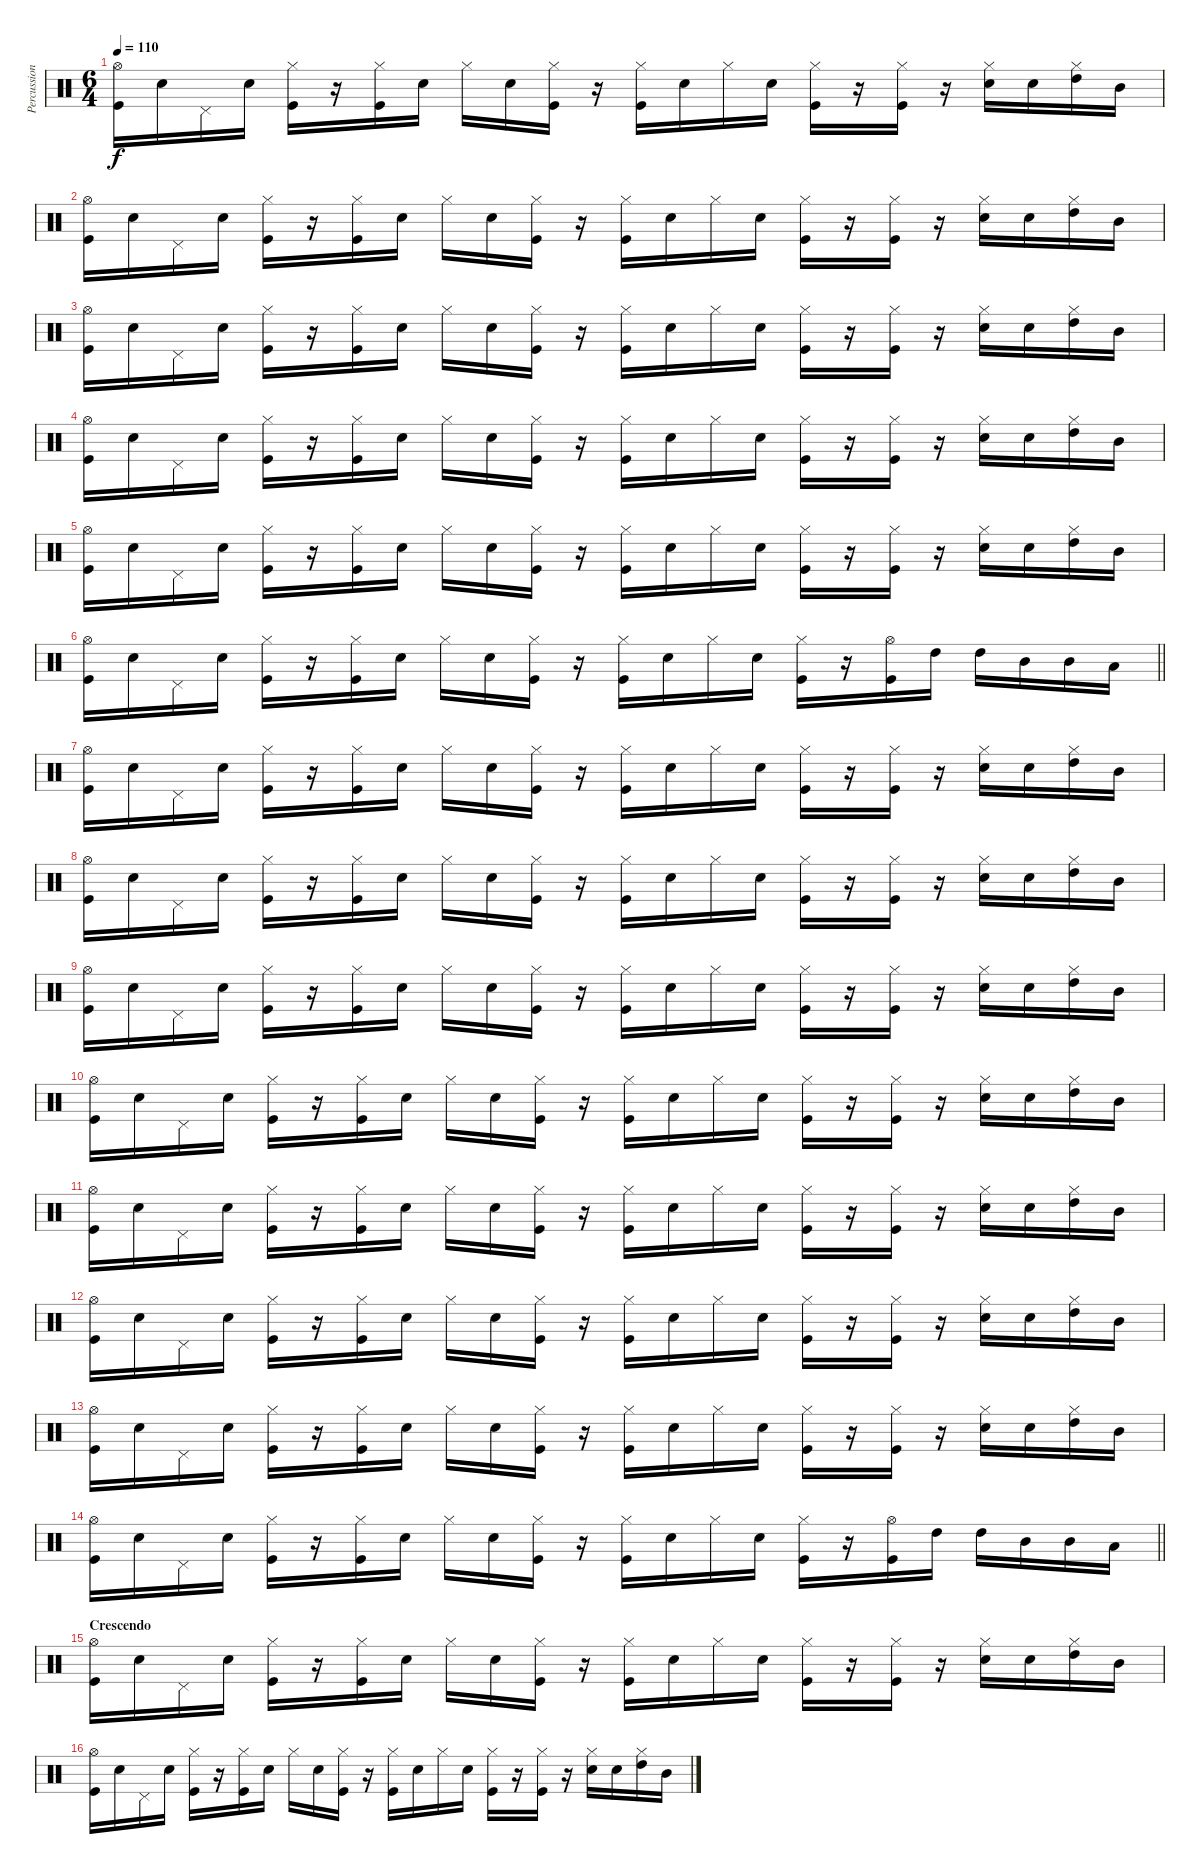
\track ("Percussion 1" "Percussion") {instrument percussion}
\staff {score}
\articulation defaults
\ts (6 4)
\tempo 110
\clef neutral
\ks c
("Hi-Hat (open)" "Kick (hit)").16{dy f} "Snare (hit) 2".16 "Pedal Hi-Hat (hit)".16 "Snare (hit) 2".16 ("Hi-Hat (closed)" "Kick (hit)").16 r.16 ("Hi-Hat (closed)" "Kick (hit)").16 "Snare (hit) 2".16 "Hi-Hat (closed)".16 "Snare (hit) 2".16 ("Hi-Hat (closed)" "Kick (hit)").16 r.16 ("Hi-Hat (closed)" "Kick (hit)").16 "Snare (hit) 2".16 "Hi-Hat (closed)".16 "Snare (hit) 2".16 ("Hi-Hat (closed)" "Kick (hit)").16 r.16 ("Hi-Hat (closed)" "Kick (hit)").16 r.16 ("Hi-Hat (closed)" "Snare (hit) 2").16 "Snare (hit) 2".16 ("Hi-Hat (closed)" "High Tom (hit)").16 "Mid Tom (hit)".16 |
("Hi-Hat (open)" "Kick (hit)").16 "Snare (hit) 2".16 "Pedal Hi-Hat (hit)".16 "Snare (hit) 2".16 ("Hi-Hat (closed)" "Kick (hit)").16 r.16 ("Hi-Hat (closed)" "Kick (hit)").16 "Snare (hit) 2".16 "Hi-Hat (closed)".16 "Snare (hit) 2".16 ("Hi-Hat (closed)" "Kick (hit)").16 r.16 ("Hi-Hat (closed)" "Kick (hit)").16 "Snare (hit) 2".16 "Hi-Hat (closed)".16 "Snare (hit) 2".16 ("Hi-Hat (closed)" "Kick (hit)").16 r.16 ("Hi-Hat (closed)" "Kick (hit)").16 r.16 ("Hi-Hat (closed)" "Snare (hit) 2").16 "Snare (hit) 2".16 ("Hi-Hat (closed)" "High Tom (hit)").16 "Mid Tom (hit)".16 |
("Hi-Hat (open)" "Kick (hit)").16 "Snare (hit) 2".16 "Pedal Hi-Hat (hit)".16 "Snare (hit) 2".16 ("Hi-Hat (closed)" "Kick (hit)").16 r.16 ("Hi-Hat (closed)" "Kick (hit)").16 "Snare (hit) 2".16 "Hi-Hat (closed)".16 "Snare (hit) 2".16 ("Hi-Hat (closed)" "Kick (hit)").16 r.16 ("Hi-Hat (closed)" "Kick (hit)").16 "Snare (hit) 2".16 "Hi-Hat (closed)".16 "Snare (hit) 2".16 ("Hi-Hat (closed)" "Kick (hit)").16 r.16 ("Hi-Hat (closed)" "Kick (hit)").16 r.16 ("Hi-Hat (closed)" "Snare (hit) 2").16 "Snare (hit) 2".16 ("Hi-Hat (closed)" "High Tom (hit)").16 "Mid Tom (hit)".16 |
("Hi-Hat (open)" "Kick (hit)").16 "Snare (hit) 2".16 "Pedal Hi-Hat (hit)".16 "Snare (hit) 2".16 ("Hi-Hat (closed)" "Kick (hit)").16 r.16 ("Hi-Hat (closed)" "Kick (hit)").16 "Snare (hit) 2".16 "Hi-Hat (closed)".16 "Snare (hit) 2".16 ("Hi-Hat (closed)" "Kick (hit)").16 r.16 ("Hi-Hat (closed)" "Kick (hit)").16 "Snare (hit) 2".16 "Hi-Hat (closed)".16 "Snare (hit) 2".16 ("Hi-Hat (closed)" "Kick (hit)").16 r.16 ("Hi-Hat (closed)" "Kick (hit)").16 r.16 ("Hi-Hat (closed)" "Snare (hit) 2").16 "Snare (hit) 2".16 ("Hi-Hat (closed)" "High Tom (hit)").16 "Mid Tom (hit)".16 |
("Hi-Hat (open)" "Kick (hit)").16 "Snare (hit) 2".16 "Pedal Hi-Hat (hit)".16 "Snare (hit) 2".16 ("Hi-Hat (closed)" "Kick (hit)").16 r.16 ("Hi-Hat (closed)" "Kick (hit)").16 "Snare (hit) 2".16 "Hi-Hat (closed)".16 "Snare (hit) 2".16 ("Hi-Hat (closed)" "Kick (hit)").16 r.16 ("Hi-Hat (closed)" "Kick (hit)").16 "Snare (hit) 2".16 "Hi-Hat (closed)".16 "Snare (hit) 2".16 ("Hi-Hat (closed)" "Kick (hit)").16 r.16 ("Hi-Hat (closed)" "Kick (hit)").16 r.16 ("Hi-Hat (closed)" "Snare (hit) 2").16 "Snare (hit) 2".16 ("Hi-Hat (closed)" "High Tom (hit)").16 "Mid Tom (hit)".16 |
\barLineRight lightlight
("Hi-Hat (open)" "Kick (hit)").16 "Snare (hit) 2".16 "Pedal Hi-Hat (hit)".16 "Snare (hit) 2".16 ("Hi-Hat (closed)" "Kick (hit)").16 r.16 ("Hi-Hat (closed)" "Kick (hit)").16 "Snare (hit) 2".16 "Hi-Hat (closed)".16 "Snare (hit) 2".16 ("Hi-Hat (closed)" "Kick (hit)").16 r.16 ("Hi-Hat (closed)" "Kick (hit)").16 "Snare (hit) 2".16 "Hi-Hat (closed)".16 "Snare (hit) 2".16 ("Hi-Hat (closed)" "Kick (hit)").16 r.16 ("Hi-Hat (open)" "Kick (hit)").16 "High Tom (hit)".16 "High Tom (hit)".16 "Mid Tom (hit)".16 "Mid Tom (hit)".16 "Low Tom (hit)".16 |
("Hi-Hat (open)" "Kick (hit)").16 "Snare (hit) 2".16 "Pedal Hi-Hat (hit)".16 "Snare (hit) 2".16 ("Hi-Hat (closed)" "Kick (hit)").16 r.16 ("Hi-Hat (closed)" "Kick (hit)").16 "Snare (hit) 2".16 "Hi-Hat (closed)".16 "Snare (hit) 2".16 ("Hi-Hat (closed)" "Kick (hit)").16 r.16 ("Hi-Hat (closed)" "Kick (hit)").16 "Snare (hit) 2".16 "Hi-Hat (closed)".16 "Snare (hit) 2".16 ("Hi-Hat (closed)" "Kick (hit)").16 r.16 ("Hi-Hat (closed)" "Kick (hit)").16 r.16 ("Hi-Hat (closed)" "Snare (hit) 2").16 "Snare (hit) 2".16 ("Hi-Hat (closed)" "High Tom (hit)").16 "Mid Tom (hit)".16 |
("Hi-Hat (open)" "Kick (hit)").16 "Snare (hit) 2".16 "Pedal Hi-Hat (hit)".16 "Snare (hit) 2".16 ("Hi-Hat (closed)" "Kick (hit)").16 r.16 ("Hi-Hat (closed)" "Kick (hit)").16 "Snare (hit) 2".16 "Hi-Hat (closed)".16 "Snare (hit) 2".16 ("Hi-Hat (closed)" "Kick (hit)").16 r.16 ("Hi-Hat (closed)" "Kick (hit)").16 "Snare (hit) 2".16 "Hi-Hat (closed)".16 "Snare (hit) 2".16 ("Hi-Hat (closed)" "Kick (hit)").16 r.16 ("Hi-Hat (closed)" "Kick (hit)").16 r.16 ("Hi-Hat (closed)" "Snare (hit) 2").16 "Snare (hit) 2".16 ("Hi-Hat (closed)" "High Tom (hit)").16 "Mid Tom (hit)".16 |
("Hi-Hat (open)" "Kick (hit)").16 "Snare (hit) 2".16 "Pedal Hi-Hat (hit)".16 "Snare (hit) 2".16 ("Hi-Hat (closed)" "Kick (hit)").16 r.16 ("Hi-Hat (closed)" "Kick (hit)").16 "Snare (hit) 2".16 "Hi-Hat (closed)".16 "Snare (hit) 2".16 ("Hi-Hat (closed)" "Kick (hit)").16 r.16 ("Hi-Hat (closed)" "Kick (hit)").16 "Snare (hit) 2".16 "Hi-Hat (closed)".16 "Snare (hit) 2".16 ("Hi-Hat (closed)" "Kick (hit)").16 r.16 ("Hi-Hat (closed)" "Kick (hit)").16 r.16 ("Hi-Hat (closed)" "Snare (hit) 2").16 "Snare (hit) 2".16 ("Hi-Hat (closed)" "High Tom (hit)").16 "Mid Tom (hit)".16 |
("Hi-Hat (open)" "Kick (hit)").16 "Snare (hit) 2".16 "Pedal Hi-Hat (hit)".16 "Snare (hit) 2".16 ("Hi-Hat (closed)" "Kick (hit)").16 r.16 ("Hi-Hat (closed)" "Kick (hit)").16 "Snare (hit) 2".16 "Hi-Hat (closed)".16 "Snare (hit) 2".16 ("Hi-Hat (closed)" "Kick (hit)").16 r.16 ("Hi-Hat (closed)" "Kick (hit)").16 "Snare (hit) 2".16 "Hi-Hat (closed)".16 "Snare (hit) 2".16 ("Hi-Hat (closed)" "Kick (hit)").16 r.16 ("Hi-Hat (closed)" "Kick (hit)").16 r.16 ("Hi-Hat (closed)" "Snare (hit) 2").16 "Snare (hit) 2".16 ("Hi-Hat (closed)" "High Tom (hit)").16 "Mid Tom (hit)".16 |
("Hi-Hat (open)" "Kick (hit)").16 "Snare (hit) 2".16 "Pedal Hi-Hat (hit)".16 "Snare (hit) 2".16 ("Hi-Hat (closed)" "Kick (hit)").16 r.16 ("Hi-Hat (closed)" "Kick (hit)").16 "Snare (hit) 2".16 "Hi-Hat (closed)".16 "Snare (hit) 2".16 ("Hi-Hat (closed)" "Kick (hit)").16 r.16 ("Hi-Hat (closed)" "Kick (hit)").16 "Snare (hit) 2".16 "Hi-Hat (closed)".16 "Snare (hit) 2".16 ("Hi-Hat (closed)" "Kick (hit)").16 r.16 ("Hi-Hat (closed)" "Kick (hit)").16 r.16 ("Hi-Hat (closed)" "Snare (hit) 2").16 "Snare (hit) 2".16 ("Hi-Hat (closed)" "High Tom (hit)").16 "Mid Tom (hit)".16 |
("Hi-Hat (open)" "Kick (hit)").16 "Snare (hit) 2".16 "Pedal Hi-Hat (hit)".16 "Snare (hit) 2".16 ("Hi-Hat (closed)" "Kick (hit)").16 r.16 ("Hi-Hat (closed)" "Kick (hit)").16 "Snare (hit) 2".16 "Hi-Hat (closed)".16 "Snare (hit) 2".16 ("Hi-Hat (closed)" "Kick (hit)").16 r.16 ("Hi-Hat (closed)" "Kick (hit)").16 "Snare (hit) 2".16 "Hi-Hat (closed)".16 "Snare (hit) 2".16 ("Hi-Hat (closed)" "Kick (hit)").16 r.16 ("Hi-Hat (closed)" "Kick (hit)").16 r.16 ("Hi-Hat (closed)" "Snare (hit) 2").16 "Snare (hit) 2".16 ("Hi-Hat (closed)" "High Tom (hit)").16 "Mid Tom (hit)".16 |
("Hi-Hat (open)" "Kick (hit)").16 "Snare (hit) 2".16 "Pedal Hi-Hat (hit)".16 "Snare (hit) 2".16 ("Hi-Hat (closed)" "Kick (hit)").16 r.16 ("Hi-Hat (closed)" "Kick (hit)").16 "Snare (hit) 2".16 "Hi-Hat (closed)".16 "Snare (hit) 2".16 ("Hi-Hat (closed)" "Kick (hit)").16 r.16 ("Hi-Hat (closed)" "Kick (hit)").16 "Snare (hit) 2".16 "Hi-Hat (closed)".16 "Snare (hit) 2".16 ("Hi-Hat (closed)" "Kick (hit)").16 r.16 ("Hi-Hat (closed)" "Kick (hit)").16 r.16 ("Hi-Hat (closed)" "Snare (hit) 2").16 "Snare (hit) 2".16 ("Hi-Hat (closed)" "High Tom (hit)").16 "Mid Tom (hit)".16 |
\barLineRight lightlight
("Hi-Hat (open)" "Kick (hit)").16 "Snare (hit) 2".16 "Pedal Hi-Hat (hit)".16 "Snare (hit) 2".16 ("Hi-Hat (closed)" "Kick (hit)").16 r.16 ("Hi-Hat (closed)" "Kick (hit)").16 "Snare (hit) 2".16 "Hi-Hat (closed)".16 "Snare (hit) 2".16 ("Hi-Hat (closed)" "Kick (hit)").16 r.16 ("Hi-Hat (closed)" "Kick (hit)").16 "Snare (hit) 2".16 "Hi-Hat (closed)".16 "Snare (hit) 2".16 ("Hi-Hat (closed)" "Kick (hit)").16 r.16 ("Hi-Hat (open)" "Kick (hit)").16 "High Tom (hit)".16 "High Tom (hit)".16 "Mid Tom (hit)".16 "Mid Tom (hit)".16 "Low Tom (hit)".16 |
\section ("" "Crescendo")
("Hi-Hat (open)" "Kick (hit)").16 "Snare (hit) 2".16 "Pedal Hi-Hat (hit)".16 "Snare (hit) 2".16 ("Hi-Hat (closed)" "Kick (hit)").16 r.16 ("Hi-Hat (closed)" "Kick (hit)").16 "Snare (hit) 2".16 "Hi-Hat (closed)".16 "Snare (hit) 2".16 ("Hi-Hat (closed)" "Kick (hit)").16 r.16 ("Hi-Hat (closed)" "Kick (hit)").16 "Snare (hit) 2".16 "Hi-Hat (closed)".16 "Snare (hit) 2".16 ("Hi-Hat (closed)" "Kick (hit)").16 r.16 ("Hi-Hat (closed)" "Kick (hit)").16 r.16 ("Hi-Hat (closed)" "Snare (hit) 2").16 "Snare (hit) 2".16 ("Hi-Hat (closed)" "High Tom (hit)").16 "Mid Tom (hit)".16 |
("Hi-Hat (open)" "Kick (hit)").16 "Snare (hit) 2".16 "Pedal Hi-Hat (hit)".16 "Snare (hit) 2".16 ("Hi-Hat (closed)" "Kick (hit)").16 r.16 ("Hi-Hat (closed)" "Kick (hit)").16 "Snare (hit) 2".16 "Hi-Hat (closed)".16 "Snare (hit) 2".16 ("Hi-Hat (closed)" "Kick (hit)").16 r.16 ("Hi-Hat (closed)" "Kick (hit)").16 "Snare (hit) 2".16 "Hi-Hat (closed)".16 "Snare (hit) 2".16 ("Hi-Hat (closed)" "Kick (hit)").16 r.16 ("Hi-Hat (closed)" "Kick (hit)").16 r.16 ("Hi-Hat (closed)" "Snare (hit) 2").16 "Snare (hit) 2".16 ("Hi-Hat (closed)" "High Tom (hit)").16 "Mid Tom (hit)".16
